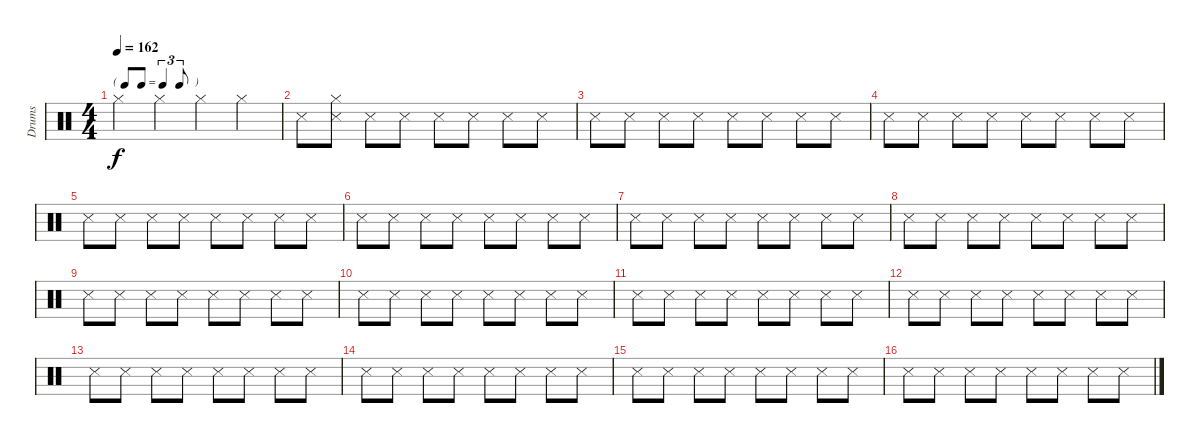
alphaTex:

\track ("Drums" "Drums") {instrument percussion}
\staff {score}
\articulation defaults
\ts (4 4)
\tf triplet8th
\tempo 162
\clef neutral
\ks c "Hi-Hat (closed)".4{dy f} "Hi-Hat (closed)".4 "Hi-Hat (closed)".4 "Hi-Hat (closed)".4
|
"Snare (side stick) 3".8 ("Hi-Hat (closed)" "Snare (side stick) 3").8 "Snare (side stick) 3".8 "Snare (side stick) 3".8 "Snare (side stick) 3".8 "Snare (side stick) 3".8 "Snare (side stick) 3".8 "Snare (side stick) 3".8 |
"Snare (side stick) 3".8 "Snare (side stick) 3".8 "Snare (side stick) 3".8 "Snare (side stick) 3".8 "Snare (side stick) 3".8 "Snare (side stick) 3".8 "Snare (side stick) 3".8 "Snare (side stick) 3".8 |
"Snare (side stick) 3".8 "Snare (side stick) 3".8 "Snare (side stick) 3".8 "Snare (side stick) 3".8 "Snare (side stick) 3".8 "Snare (side stick) 3".8 "Snare (side stick) 3".8 "Snare (side stick) 3".8 |
"Snare (side stick) 3".8 "Snare (side stick) 3".8 "Snare (side stick) 3".8 "Snare (side stick) 3".8 "Snare (side stick) 3".8 "Snare (side stick) 3".8 "Snare (side stick) 3".8 "Snare (side stick) 3".8 |
"Snare (side stick) 3".8 "Snare (side stick) 3".8 "Snare (side stick) 3".8 "Snare (side stick) 3".8 "Snare (side stick) 3".8 "Snare (side stick) 3".8 "Snare (side stick) 3".8 "Snare (side stick) 3".8 |
"Snare (side stick) 3".8 "Snare (side stick) 3".8 "Snare (side stick) 3".8 "Snare (side stick) 3".8 "Snare (side stick) 3".8 "Snare (side stick) 3".8 "Snare (side stick) 3".8 "Snare (side stick) 3".8 |
"Snare (side stick) 3".8 "Snare (side stick) 3".8 "Snare (side stick) 3".8 "Snare (side stick) 3".8 "Snare (side stick) 3".8 "Snare (side stick) 3".8 "Snare (side stick) 3".8 "Snare (side stick) 3".8 |
"Snare (side stick) 3".8 "Snare (side stick) 3".8 "Snare (side stick) 3".8 "Snare (side stick) 3".8 "Snare (side stick) 3".8 "Snare (side stick) 3".8 "Snare (side stick) 3".8 "Snare (side stick) 3".8 |
"Snare (side stick) 3".8 "Snare (side stick) 3".8 "Snare (side stick) 3".8 "Snare (side stick) 3".8 "Snare (side stick) 3".8 "Snare (side stick) 3".8 "Snare (side stick) 3".8 "Snare (side stick) 3".8 |
"Snare (side stick) 3".8 "Snare (side stick) 3".8 "Snare (side stick) 3".8 "Snare (side stick) 3".8 "Snare (side stick) 3".8 "Snare (side stick) 3".8 "Snare (side stick) 3".8 "Snare (side stick) 3".8 |
"Snare (side stick) 3".8 "Snare (side stick) 3".8 "Snare (side stick) 3".8 "Snare (side stick) 3".8 "Snare (side stick) 3".8 "Snare (side stick) 3".8 "Snare (side stick) 3".8 "Snare (side stick) 3".8 |
"Snare (side stick) 3".8 "Snare (side stick) 3".8 "Snare (side stick) 3".8 "Snare (side stick) 3".8 "Snare (side stick) 3".8 "Snare (side stick) 3".8 "Snare (side stick) 3".8 "Snare (side stick) 3".8 |
"Snare (side stick) 3".8 "Snare (side stick) 3".8 "Snare (side stick) 3".8 "Snare (side stick) 3".8 "Snare (side stick) 3".8 "Snare (side stick) 3".8 "Snare (side stick) 3".8 "Snare (side stick) 3".8 |
"Snare (side stick) 3".8 "Snare (side stick) 3".8 "Snare (side stick) 3".8 "Snare (side stick) 3".8 "Snare (side stick) 3".8 "Snare (side stick) 3".8 "Snare (side stick) 3".8 "Snare (side stick) 3".8 |
"Snare (side stick) 3".8 "Snare (side stick) 3".8 "Snare (side stick) 3".8 "Snare (side stick) 3".8 "Snare (side stick) 3".8 "Snare (side stick) 3".8 "Snare (side stick) 3".8 "Snare (side stick) 3".8
